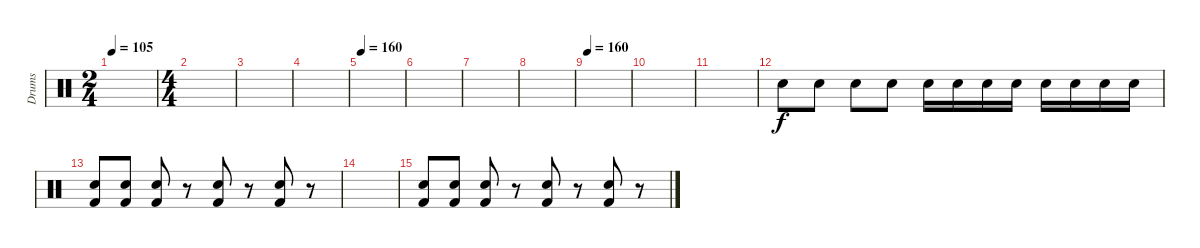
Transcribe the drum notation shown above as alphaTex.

\track ("Drums" "Drums") {instrument percussion}
\staff {score}
\articulation defaults
\ts (2 4)
\tempo 105
\clef neutral
\ks c
|
\ts (4 4)
|
|
|
\tempo 160
|
|
|
|
\tempo 160
|
|
|
"Electric Snare (hit)".8{dy f volume 5} "Electric Snare (hit)".8{volume 6} "Electric Snare (hit)".8{volume 7} "Electric Snare (hit)".8{volume 8} "Electric Snare (hit)".16{volume 9} "Electric Snare (hit)".16 "Electric Snare (hit)".16 "Electric Snare (hit)".16 "Electric Snare (hit)".16 "Electric Snare (hit)".16 "Electric Snare (hit)".16 "Electric Snare (hit)".16 |
("Electric Snare (hit)" "Kick (hit) 2").8 ("Electric Snare (hit)" "Kick (hit) 2").8 ("Electric Snare (hit)" "Kick (hit) 2").8 r.8 ("Electric Snare (hit)" "Kick (hit) 2").8 r.8 ("Electric Snare (hit)" "Kick (hit) 2").8 r.8 |
|
("Electric Snare (hit)" "Kick (hit) 2").8 ("Electric Snare (hit)" "Kick (hit) 2").8 ("Electric Snare (hit)" "Kick (hit) 2").8 r.8 ("Electric Snare (hit)" "Kick (hit) 2").8 r.8 ("Electric Snare (hit)" "Kick (hit) 2").8 r.8
